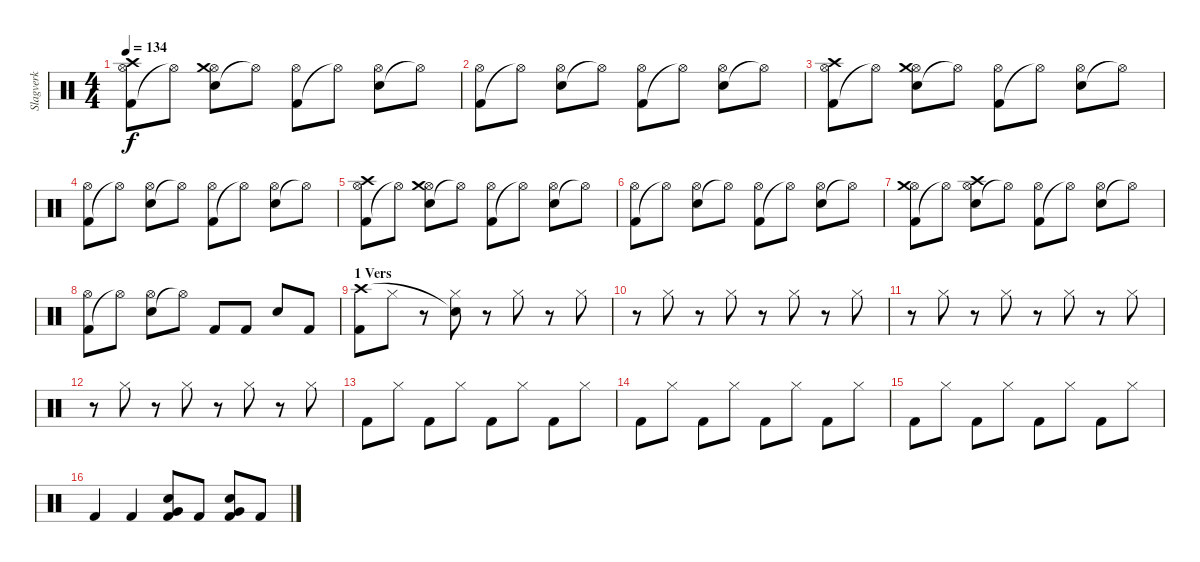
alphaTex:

\track ("Slagverk" "Slagverk") {instrument percussion}
\staff {score}
\articulation defaults
\ts (4 4)
\tempo 134
\clef neutral
\ks c
("Kick (hit) 2" "Hi-Hat (open)" "Crash high (hit)").8{dy f} "Hi-Hat (open)"{t}.8 ("Electric Snare (hit)" "Hi-Hat (open)" "Crash medium (hit)").8 "Hi-Hat (open)"{t}.8 ("Kick (hit) 2" "Hi-Hat (open)").8 "Hi-Hat (open)"{t}.8 ("Electric Snare (hit)" "Hi-Hat (open)").8 "Hi-Hat (open)"{t}.8 |
("Kick (hit) 2" "Hi-Hat (open)").8 "Hi-Hat (open)"{t}.8 ("Electric Snare (hit)" "Hi-Hat (open)").8 "Hi-Hat (open)"{t}.8 ("Kick (hit) 2" "Hi-Hat (open)").8 "Hi-Hat (open)"{t}.8 ("Electric Snare (hit)" "Hi-Hat (open)").8 "Hi-Hat (open)"{t}.8 |
("Kick (hit) 2" "Hi-Hat (open)" "Crash high (hit)").8 "Hi-Hat (open)"{t}.8 ("Electric Snare (hit)" "Hi-Hat (open)" "Crash medium (hit)").8 "Hi-Hat (open)"{t}.8 ("Kick (hit) 2" "Hi-Hat (open)").8 "Hi-Hat (open)"{t}.8 ("Electric Snare (hit)" "Hi-Hat (open)").8 "Hi-Hat (open)"{t}.8 |
("Kick (hit) 2" "Hi-Hat (open)").8 "Hi-Hat (open)"{t}.8 ("Electric Snare (hit)" "Hi-Hat (open)").8 "Hi-Hat (open)"{t}.8 ("Kick (hit) 2" "Hi-Hat (open)").8 "Hi-Hat (open)"{t}.8 ("Electric Snare (hit)" "Hi-Hat (open)").8 "Hi-Hat (open)"{t}.8 |
("Kick (hit) 2" "Hi-Hat (open)" "Crash high (hit)").8 "Hi-Hat (open)"{t}.8 ("Electric Snare (hit)" "Hi-Hat (open)" "Crash medium (hit)").8 "Hi-Hat (open)"{t}.8 ("Kick (hit) 2" "Hi-Hat (open)").8 "Hi-Hat (open)"{t}.8 ("Electric Snare (hit)" "Hi-Hat (open)").8 "Hi-Hat (open)"{t}.8 |
("Kick (hit) 2" "Hi-Hat (open)").8 "Hi-Hat (open)"{t}.8 ("Electric Snare (hit)" "Hi-Hat (open)").8 "Hi-Hat (open)"{t}.8 ("Kick (hit) 2" "Hi-Hat (open)").8 "Hi-Hat (open)"{t}.8 ("Electric Snare (hit)" "Hi-Hat (open)").8 "Hi-Hat (open)"{t}.8 |
("Kick (hit) 2" "Hi-Hat (open)" "Crash medium (hit)").8 "Hi-Hat (open)"{t}.8 ("Electric Snare (hit)" "Hi-Hat (open)" "Crash high (hit)").8 "Hi-Hat (open)"{t}.8 ("Kick (hit) 2" "Hi-Hat (open)").8 "Hi-Hat (open)"{t}.8 ("Electric Snare (hit)" "Hi-Hat (open)").8 "Hi-Hat (open)"{t}.8 |
("Kick (hit) 2" "Hi-Hat (open)").8 "Hi-Hat (open)"{t}.8 ("Electric Snare (hit)" "Hi-Hat (open)").8 "Hi-Hat (open)"{t}.8 "Kick (hit) 2".8 "Kick (hit) 2".8 "Electric Snare (hit)".8 "Kick (hit) 2".8 |
\section ("" "1 Vers")
("Kick (hit) 2" "Crash high (hit)").8 "Hi-Hat (closed)".8 r.8 ("Hi-Hat (closed)" "Snare (hit)"{t}).8 r.8 "Hi-Hat (closed)".8 r.8 "Hi-Hat (closed)".8 |
r.8 "Hi-Hat (closed)".8 r.8 "Hi-Hat (closed)".8 r.8 "Hi-Hat (closed)".8 r.8 "Hi-Hat (closed)".8 |
r.8 "Hi-Hat (closed)".8 r.8 "Hi-Hat (closed)".8 r.8 "Hi-Hat (closed)".8 r.8 "Hi-Hat (closed)".8 |
r.8 "Hi-Hat (closed)".8 r.8 "Hi-Hat (closed)".8 r.8 "Hi-Hat (closed)".8 r.8 "Hi-Hat (closed)".8 |
"Kick (hit) 2".8 "Hi-Hat (closed)".8 "Kick (hit) 2".8 "Hi-Hat (closed)".8 "Kick (hit) 2".8 "Hi-Hat (closed)".8 "Kick (hit) 2".8 "Hi-Hat (closed)".8 |
"Kick (hit) 2".8 "Hi-Hat (closed)".8 "Kick (hit) 2".8 "Hi-Hat (closed)".8 "Kick (hit) 2".8 "Hi-Hat (closed)".8 "Kick (hit) 2".8 "Hi-Hat (closed)".8 |
"Kick (hit) 2".8 "Hi-Hat (closed)".8 "Kick (hit) 2".8 "Hi-Hat (closed)".8 "Kick (hit) 2".8 "Hi-Hat (closed)".8 "Kick (hit) 2".8 "Hi-Hat (closed)".8 |
"Kick (hit) 2".4 "Kick (hit) 2".4 ("Kick (hit) 2" "Very Low Tom (hit)" "Electric Snare (hit)").8 "Kick (hit) 2".8 ("Kick (hit) 2" "Very Low Tom (hit)" "Electric Snare (hit)").8 "Kick (hit) 2".8
